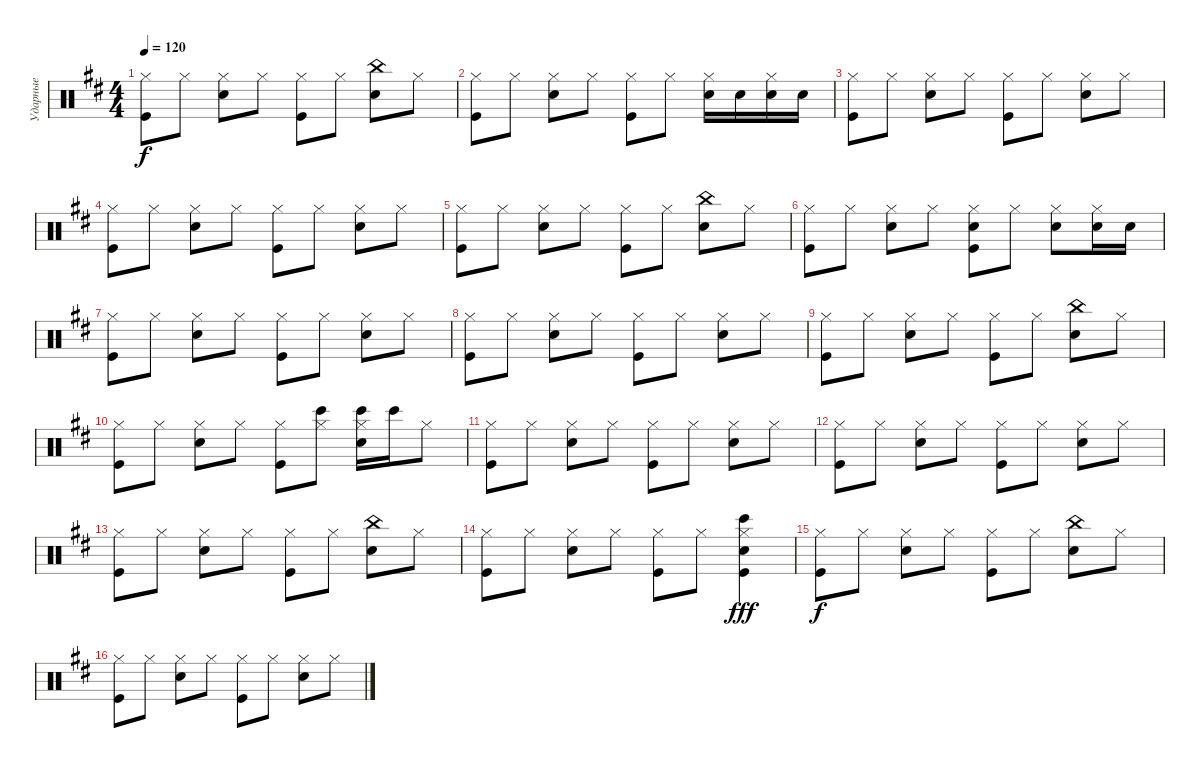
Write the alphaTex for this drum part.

\track ("Ударные" "Ударные") {instrument percussion}
\staff {score}
\articulation defaults
\ts (4 4)
\tempo 120
\clef neutral
\ks bminor
("Hi-Hat (closed)" "Kick (hit)").8{dy f} "Hi-Hat (closed)".8 ("Hi-Hat (closed)" "Snare (hit) 2").8 "Hi-Hat (closed)".8 ("Hi-Hat (closed)" "Kick (hit)").8 "Hi-Hat (closed)".8 ("China (hit)" "Snare (hit) 2").8{balance 14} "Hi-Hat (closed)".8 |
("Hi-Hat (closed)" "Kick (hit)").8{balance 8} "Hi-Hat (closed)".8 ("Hi-Hat (closed)" "Snare (hit) 2").8 "Hi-Hat (closed)".8 ("Hi-Hat (closed)" "Kick (hit)").8 "Hi-Hat (closed)".8 ("Hi-Hat (closed)" "Snare (hit) 2").16 "Snare (hit) 2".16 ("Hi-Hat (closed)" "Snare (hit) 2").16 "Snare (hit) 2".16 |
("Hi-Hat (closed)" "Kick (hit)").8 "Hi-Hat (closed)".8 ("Hi-Hat (closed)" "Snare (hit) 2").8 "Hi-Hat (closed)".8 ("Hi-Hat (closed)" "Kick (hit)").8 "Hi-Hat (closed)".8 ("Hi-Hat (closed)" "Snare (hit) 2").8 "Hi-Hat (closed)".8 |
("Hi-Hat (closed)" "Kick (hit)").8 "Hi-Hat (closed)".8 ("Hi-Hat (closed)" "Snare (hit) 2").8 "Hi-Hat (closed)".8 ("Hi-Hat (closed)" "Kick (hit)").8 "Hi-Hat (closed)".8 ("Hi-Hat (closed)" "Snare (hit) 2").8 "Hi-Hat (closed)".8 |
("Hi-Hat (closed)" "Kick (hit)").8 "Hi-Hat (closed)".8 ("Hi-Hat (closed)" "Snare (hit) 2").8 "Hi-Hat (closed)".8 ("Hi-Hat (closed)" "Kick (hit)").8 "Hi-Hat (closed)".8 ("China (hit)" "Snare (hit) 2").8 "Hi-Hat (closed)".8 |
("Hi-Hat (closed)" "Kick (hit)").8 "Hi-Hat (closed)".8 ("Hi-Hat (closed)" "Snare (hit) 2").8 "Hi-Hat (closed)".8 ("Hi-Hat (closed)" "Kick (hit)" "Snare (hit) 2").8 "Hi-Hat (closed)".8 ("Hi-Hat (closed)" "Snare (hit) 2").8 ("Hi-Hat (closed)" "Snare (hit) 2").16 "Snare (hit) 2".16 |
("Hi-Hat (closed)" "Kick (hit)").8 "Hi-Hat (closed)".8 ("Hi-Hat (closed)" "Snare (hit) 2").8 "Hi-Hat (closed)".8 ("Hi-Hat (closed)" "Kick (hit)").8 "Hi-Hat (closed)".8 ("Hi-Hat (closed)" "Snare (hit) 2").8 "Hi-Hat (closed)".8 |
("Hi-Hat (closed)" "Kick (hit)").8 "Hi-Hat (closed)".8 ("Hi-Hat (closed)" "Snare (hit) 2").8 "Hi-Hat (closed)".8 ("Hi-Hat (closed)" "Kick (hit)").8 "Hi-Hat (closed)".8 ("Hi-Hat (closed)" "Snare (hit) 2").8 "Hi-Hat (closed)".8 |
("Hi-Hat (closed)" "Kick (hit)").8 "Hi-Hat (closed)".8 ("Hi-Hat (closed)" "Snare (hit) 2").8 "Hi-Hat (closed)".8 ("Hi-Hat (closed)" "Kick (hit)").8 "Hi-Hat (closed)".8 ("China (hit)" "Snare (hit) 2").8 "Hi-Hat (closed)".8 |
("Hi-Hat (closed)" "Kick (hit)").8 "Hi-Hat (closed)".8 ("Hi-Hat (closed)" "Snare (hit) 2").8 "Hi-Hat (closed)".8 ("Hi-Hat (closed)" "Kick (hit)").8 ("Hi-Hat (closed)" "Bongo High (hit)").8 ("Hi-Hat (closed)" "Snare (hit) 2" "Bongo High (hit)").16 "Bongo High (hit)".16 "Hi-Hat (closed)".8 |
("Hi-Hat (closed)" "Kick (hit)").8 "Hi-Hat (closed)".8 ("Hi-Hat (closed)" "Snare (hit) 2").8 "Hi-Hat (closed)".8 ("Hi-Hat (closed)" "Kick (hit)").8 "Hi-Hat (closed)".8 ("Hi-Hat (closed)" "Snare (hit) 2").8 "Hi-Hat (closed)".8 |
("Hi-Hat (closed)" "Kick (hit)").8 "Hi-Hat (closed)".8 ("Hi-Hat (closed)" "Snare (hit) 2").8 "Hi-Hat (closed)".8 ("Hi-Hat (closed)" "Kick (hit)").8 "Hi-Hat (closed)".8 ("Hi-Hat (closed)" "Snare (hit) 2").8 "Hi-Hat (closed)".8 |
("Hi-Hat (closed)" "Kick (hit)").8 "Hi-Hat (closed)".8 ("Hi-Hat (closed)" "Snare (hit) 2").8 "Hi-Hat (closed)".8 ("Hi-Hat (closed)" "Kick (hit)").8 "Hi-Hat (closed)".8 ("China (hit)" "Snare (hit) 2").8{balance 14} "Hi-Hat (closed)".8{balance 8} |
("Hi-Hat (closed)" "Kick (hit)").8 "Hi-Hat (closed)".8 ("Hi-Hat (closed)" "Snare (hit) 2").8 "Hi-Hat (closed)".8 ("Hi-Hat (closed)" "Kick (hit)").8 "Hi-Hat (closed)".8 ("Hi-Hat (closed)" "Bongo High (hit)" "Hand Clap (hit)" "Kick (hit)").4{dy fff} |
("Hi-Hat (closed)" "Kick (hit)").8{dy f} "Hi-Hat (closed)".8 ("Hi-Hat (closed)" "Snare (hit) 2").8 "Hi-Hat (closed)".8 ("Hi-Hat (closed)" "Kick (hit)").8 "Hi-Hat (closed)".8 ("China (hit)" "Snare (hit) 2").8 "Hi-Hat (closed)".8 |
("Hi-Hat (closed)" "Kick (hit)").8 "Hi-Hat (closed)".8 ("Hi-Hat (closed)" "Snare (hit) 2").8 "Hi-Hat (closed)".8 ("Hi-Hat (closed)" "Kick (hit)").8 "Hi-Hat (closed)".8 ("Hi-Hat (closed)" "Snare (hit) 2").8 "Hi-Hat (closed)".8
